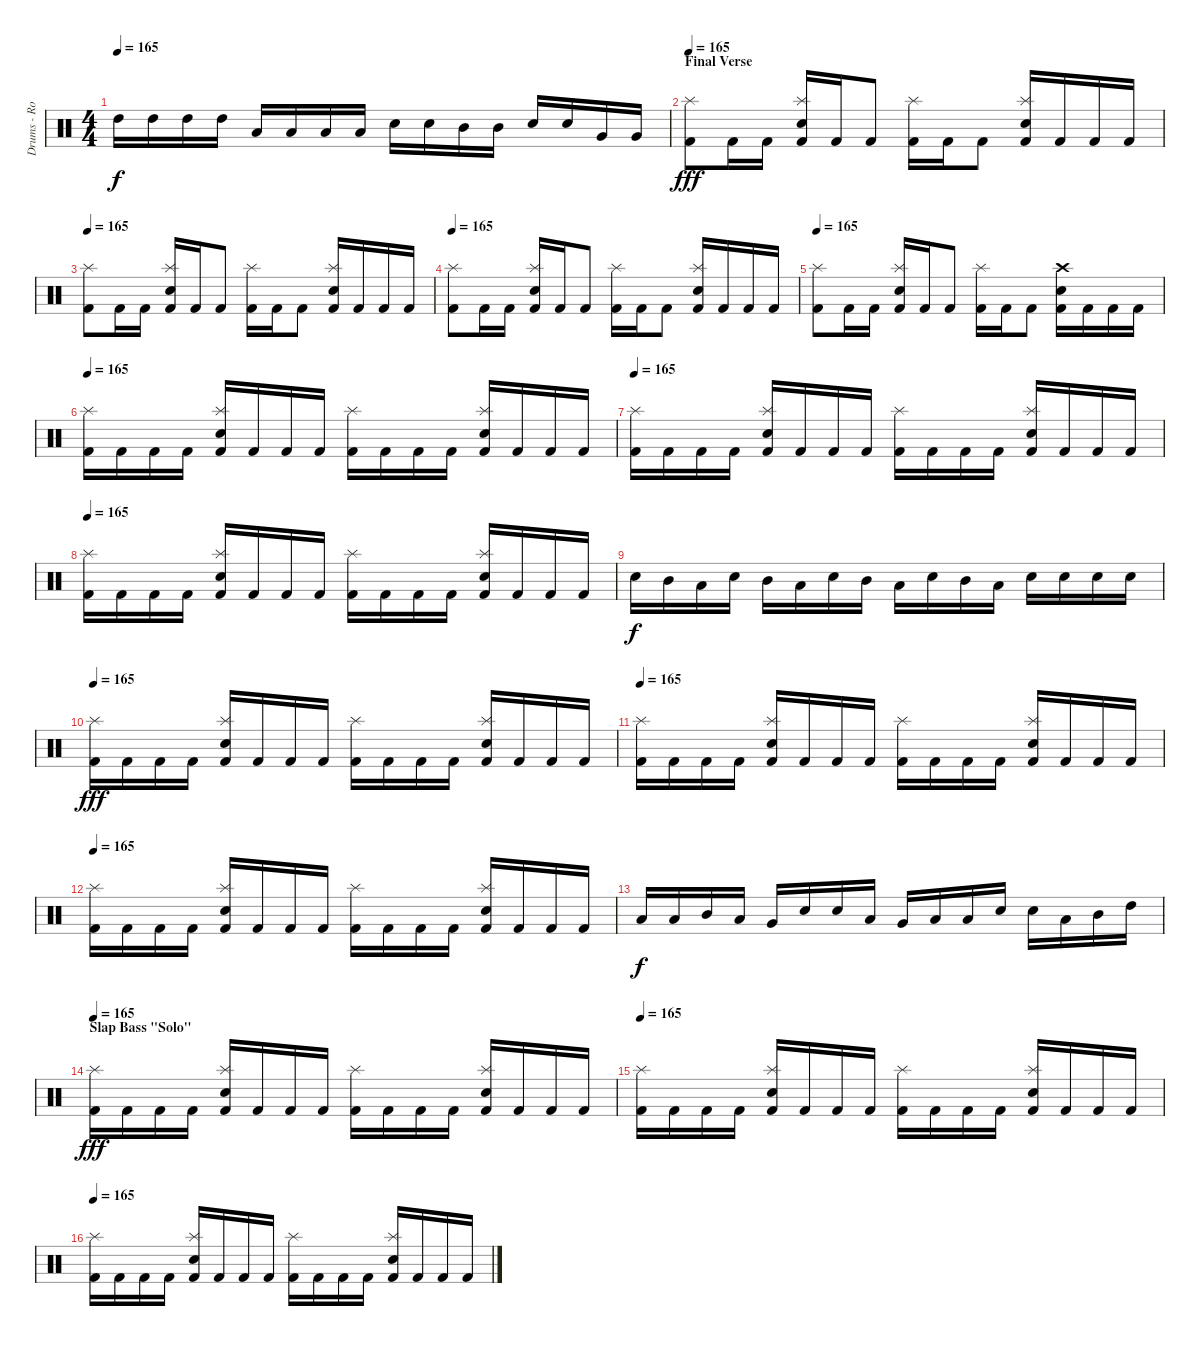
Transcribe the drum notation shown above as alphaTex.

\track ("Drums - Rodrigo" "Drums - Ro") {instrument percussion}
\staff {score}
\articulation defaults
\ts (4 4)
\tempo 165
\clef neutral
\ks c "High Tom (hit)".16{dy f} "High Tom (hit)".16 "High Tom (hit)".16 "High Tom (hit)".16 "Low Tom (hit)".16 "Low Tom (hit)".16 "Low Tom (hit)".16 "Low Tom (hit)".16 "Electric Snare (hit)".16 "Electric Snare (hit)".16 "Mid Tom (hit)".16 "Mid Tom (hit)".16 "Electric Snare (hit)".16 "Electric Snare (hit)".16 "Very Low Tom (hit)".16 "Very Low Tom (hit)".16
|
\section ("" "Final Verse")
\tempo 165
("Splash (hit)" "Kick (hit) 2").8{dy fff} "Kick (hit) 2".16 "Kick (hit) 2".16 ("Splash (hit)" "Electric Snare (hit)" "Kick (hit) 2").16 "Kick (hit) 2".16 "Kick (hit) 2".8 ("Splash (hit)" "Kick (hit) 2").16 "Kick (hit) 2".16 "Kick (hit) 2".8 ("Splash (hit)" "Electric Snare (hit)" "Kick (hit) 2").16 "Kick (hit) 2".16 "Kick (hit) 2".16 "Kick (hit) 2".16 |
\tempo 165
("Splash (hit)" "Kick (hit) 2").8 "Kick (hit) 2".16 "Kick (hit) 2".16 ("Splash (hit)" "Electric Snare (hit)" "Kick (hit) 2").16 "Kick (hit) 2".16 "Kick (hit) 2".8 ("Splash (hit)" "Kick (hit) 2").16 "Kick (hit) 2".16 "Kick (hit) 2".8 ("Splash (hit)" "Electric Snare (hit)" "Kick (hit) 2").16 "Kick (hit) 2".16 "Kick (hit) 2".16 "Kick (hit) 2".16 |
\tempo 165
("Splash (hit)" "Kick (hit) 2").8 "Kick (hit) 2".16 "Kick (hit) 2".16 ("Splash (hit)" "Electric Snare (hit)" "Kick (hit) 2").16 "Kick (hit) 2".16 "Kick (hit) 2".8 ("Splash (hit)" "Kick (hit) 2").16 "Kick (hit) 2".16 "Kick (hit) 2".8 ("Splash (hit)" "Electric Snare (hit)" "Kick (hit) 2").16 "Kick (hit) 2".16 "Kick (hit) 2".16 "Kick (hit) 2".16 |
\tempo 165
("Splash (hit)" "Kick (hit) 2").8 "Kick (hit) 2".16 "Kick (hit) 2".16 ("Splash (hit)" "Electric Snare (hit)" "Kick (hit) 2").16 "Kick (hit) 2".16 "Kick (hit) 2".8 ("Splash (hit)" "Kick (hit) 2").16 "Kick (hit) 2".16 "Kick (hit) 2".8 ("Crash high (hit)" "Electric Snare (hit)" "Kick (hit) 2").16 "Kick (hit) 2".16 "Kick (hit) 2".16 "Kick (hit) 2".16 |
\tempo 165
("Splash (hit)" "Kick (hit) 2").16 "Kick (hit) 2".16 "Kick (hit) 2".16 "Kick (hit) 2".16 ("Splash (hit)" "Electric Snare (hit)" "Kick (hit) 2").16 "Kick (hit) 2".16 "Kick (hit) 2".16 "Kick (hit) 2".16 ("Splash (hit)" "Kick (hit) 2").16 "Kick (hit) 2".16 "Kick (hit) 2".16 "Kick (hit) 2".16 ("Splash (hit)" "Electric Snare (hit)" "Kick (hit) 2").16 "Kick (hit) 2".16 "Kick (hit) 2".16 "Kick (hit) 2".16 |
\tempo 165
("Splash (hit)" "Kick (hit) 2").16 "Kick (hit) 2".16 "Kick (hit) 2".16 "Kick (hit) 2".16 ("Splash (hit)" "Electric Snare (hit)" "Kick (hit) 2").16 "Kick (hit) 2".16 "Kick (hit) 2".16 "Kick (hit) 2".16 ("Splash (hit)" "Kick (hit) 2").16 "Kick (hit) 2".16 "Kick (hit) 2".16 "Kick (hit) 2".16 ("Splash (hit)" "Electric Snare (hit)" "Kick (hit) 2").16 "Kick (hit) 2".16 "Kick (hit) 2".16 "Kick (hit) 2".16 |
\tempo 165
("Splash (hit)" "Kick (hit) 2").16 "Kick (hit) 2".16 "Kick (hit) 2".16 "Kick (hit) 2".16 ("Splash (hit)" "Electric Snare (hit)" "Kick (hit) 2").16 "Kick (hit) 2".16 "Kick (hit) 2".16 "Kick (hit) 2".16 ("Splash (hit)" "Kick (hit) 2").16 "Kick (hit) 2".16 "Kick (hit) 2".16 "Kick (hit) 2".16 ("Splash (hit)" "Electric Snare (hit)" "Kick (hit) 2").16 "Kick (hit) 2".16 "Kick (hit) 2".16 "Kick (hit) 2".16 |
"Electric Snare (hit)".16{dy f} "Mid Tom (hit)".16 "Low Tom (hit)".16 "Electric Snare (hit)".16 "Mid Tom (hit)".16 "Low Tom (hit)".16 "Electric Snare (hit)".16 "Mid Tom (hit)".16 "Low Tom (hit)".16 "Electric Snare (hit)".16 "Mid Tom (hit)".16 "Low Tom (hit)".16 "Electric Snare (hit)".16 "Electric Snare (hit)".16 "Electric Snare (hit)".16 "Electric Snare (hit)".16 |
\tempo 165
("Splash (hit)" "Kick (hit) 2").16{dy fff} "Kick (hit) 2".16 "Kick (hit) 2".16 "Kick (hit) 2".16 ("Splash (hit)" "Electric Snare (hit)" "Kick (hit) 2").16 "Kick (hit) 2".16 "Kick (hit) 2".16 "Kick (hit) 2".16 ("Splash (hit)" "Kick (hit) 2").16 "Kick (hit) 2".16 "Kick (hit) 2".16 "Kick (hit) 2".16 ("Splash (hit)" "Electric Snare (hit)" "Kick (hit) 2").16 "Kick (hit) 2".16 "Kick (hit) 2".16 "Kick (hit) 2".16 |
\tempo 165
("Splash (hit)" "Kick (hit) 2").16 "Kick (hit) 2".16 "Kick (hit) 2".16 "Kick (hit) 2".16 ("Splash (hit)" "Electric Snare (hit)" "Kick (hit) 2").16 "Kick (hit) 2".16 "Kick (hit) 2".16 "Kick (hit) 2".16 ("Splash (hit)" "Kick (hit) 2").16 "Kick (hit) 2".16 "Kick (hit) 2".16 "Kick (hit) 2".16 ("Splash (hit)" "Electric Snare (hit)" "Kick (hit) 2").16 "Kick (hit) 2".16 "Kick (hit) 2".16 "Kick (hit) 2".16 |
\tempo 165
("Splash (hit)" "Kick (hit) 2").16 "Kick (hit) 2".16 "Kick (hit) 2".16 "Kick (hit) 2".16 ("Splash (hit)" "Electric Snare (hit)" "Kick (hit) 2").16 "Kick (hit) 2".16 "Kick (hit) 2".16 "Kick (hit) 2".16 ("Splash (hit)" "Kick (hit) 2").16 "Kick (hit) 2".16 "Kick (hit) 2".16 "Kick (hit) 2".16 ("Splash (hit)" "Electric Snare (hit)" "Kick (hit) 2").16 "Kick (hit) 2".16 "Kick (hit) 2".16 "Kick (hit) 2".16 |
"Low Tom (hit)".16{dy f} "Low Tom (hit)".16 "Mid Tom (hit)".16 "Low Tom (hit)".16 "Very Low Tom (hit)".16 "Electric Snare (hit)".16 "Electric Snare (hit)".16 "Low Floor Tom (hit)".16 "Very Low Tom (hit)".16 "Low Floor Tom (hit)".16 "Low Floor Tom (hit)".16 "Electric Snare (hit)".16 "Electric Snare (hit)".16 "Low Tom (hit)".16 "Mid Tom (hit)".16 "High Tom (hit)".16 |
\section ("" "Slap Bass \"Solo\"")
\tempo 165
("Splash (hit)" "Kick (hit) 2").16{dy fff} "Kick (hit) 2".16 "Kick (hit) 2".16 "Kick (hit) 2".16 ("Splash (hit)" "Electric Snare (hit)" "Kick (hit) 2").16 "Kick (hit) 2".16 "Kick (hit) 2".16 "Kick (hit) 2".16 ("Splash (hit)" "Kick (hit) 2").16 "Kick (hit) 2".16 "Kick (hit) 2".16 "Kick (hit) 2".16 ("Splash (hit)" "Electric Snare (hit)" "Kick (hit) 2").16 "Kick (hit) 2".16 "Kick (hit) 2".16 "Kick (hit) 2".16 |
\tempo 165
("Splash (hit)" "Kick (hit) 2").16 "Kick (hit) 2".16 "Kick (hit) 2".16 "Kick (hit) 2".16 ("Splash (hit)" "Electric Snare (hit)" "Kick (hit) 2").16 "Kick (hit) 2".16 "Kick (hit) 2".16 "Kick (hit) 2".16 ("Splash (hit)" "Kick (hit) 2").16 "Kick (hit) 2".16 "Kick (hit) 2".16 "Kick (hit) 2".16 ("Splash (hit)" "Electric Snare (hit)" "Kick (hit) 2").16 "Kick (hit) 2".16 "Kick (hit) 2".16 "Kick (hit) 2".16 |
\tempo 165
("Splash (hit)" "Kick (hit) 2").16 "Kick (hit) 2".16 "Kick (hit) 2".16 "Kick (hit) 2".16 ("Splash (hit)" "Electric Snare (hit)" "Kick (hit) 2").16 "Kick (hit) 2".16 "Kick (hit) 2".16 "Kick (hit) 2".16 ("Splash (hit)" "Kick (hit) 2").16 "Kick (hit) 2".16 "Kick (hit) 2".16 "Kick (hit) 2".16 ("Splash (hit)" "Electric Snare (hit)" "Kick (hit) 2").16 "Kick (hit) 2".16 "Kick (hit) 2".16 "Kick (hit) 2".16
